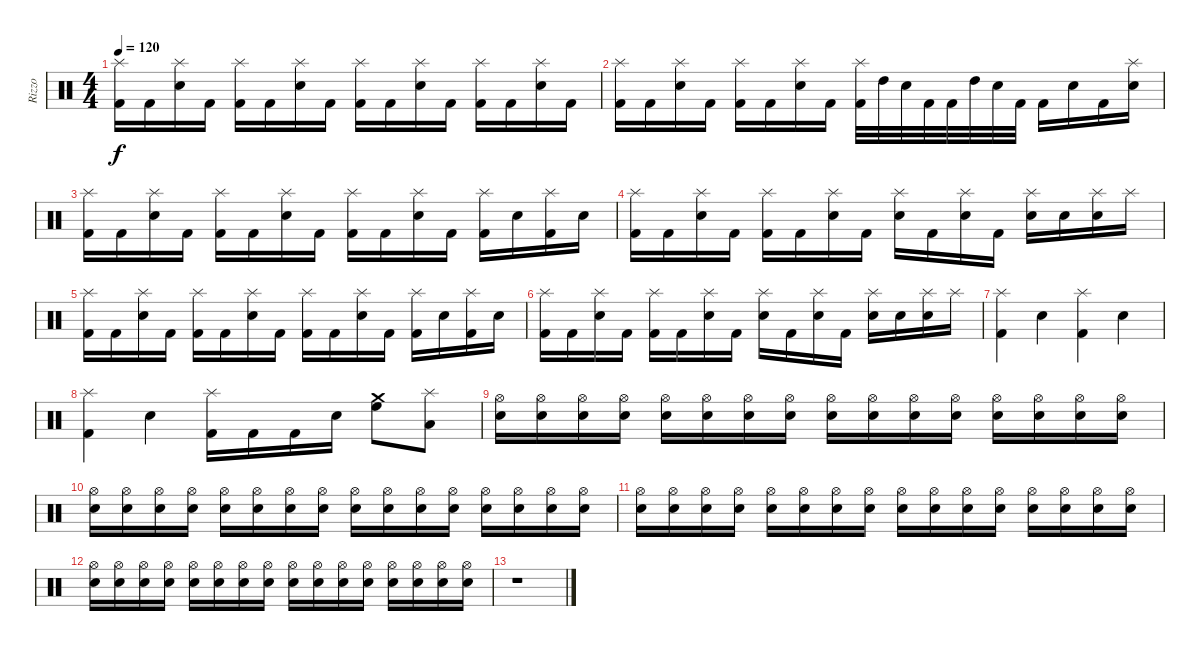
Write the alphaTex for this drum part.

\track ("Rizzo" "Rizzo") {instrument percussion}
\staff {score}
\articulation defaults
\ts (4 4)
\tempo 120
\clef neutral
\ks c
("Kick (hit) 2" "Splash (hit)").16{dy f} "Kick (hit) 2".16 ("Electric Snare (hit)" "Splash (hit)").16 "Kick (hit) 2".16 ("Kick (hit) 2" "Splash (hit)").16 "Kick (hit) 2".16 ("Electric Snare (hit)" "Splash (hit)").16 "Kick (hit) 2".16 ("Kick (hit) 2" "Splash (hit)").16 "Kick (hit) 2".16 ("Electric Snare (hit)" "Splash (hit)").16 "Kick (hit) 2".16 ("Kick (hit) 2" "Splash (hit)").16 "Kick (hit) 2".16 ("Electric Snare (hit)" "Splash (hit)").16 "Kick (hit) 2".16 |
("Kick (hit) 2" "Splash (hit)").16 "Kick (hit) 2".16 ("Electric Snare (hit)" "Splash (hit)").16 "Kick (hit) 2".16 ("Kick (hit) 2" "Splash (hit)").16 "Kick (hit) 2".16 ("Electric Snare (hit)" "Splash (hit)").16 "Kick (hit) 2".16 ("Kick (hit) 2" "Splash (hit)").32 "High Tom (hit)".32 "Electric Snare (hit)".32 "Kick (hit) 2".32 "Kick (hit) 2".32 "High Tom (hit)".32 "Electric Snare (hit)".32 "Kick (hit) 2".32 "Kick (hit) 2"{x}.16 "Electric Snare (hit)".16 "Kick (hit) 2".16 ("Electric Snare (hit)" "Splash (hit)").16 |
("Kick (hit) 2" "Splash (hit)").16 "Kick (hit) 2".16 ("Electric Snare (hit)" "Splash (hit)").16 "Kick (hit) 2".16 ("Kick (hit) 2" "Splash (hit)").16 "Kick (hit) 2".16 ("Electric Snare (hit)" "Splash (hit)").16 "Kick (hit) 2".16 ("Kick (hit) 2" "Splash (hit)").16 "Kick (hit) 2".16 ("Electric Snare (hit)" "Splash (hit)").16 "Kick (hit) 2".16 ("Kick (hit) 2" "Splash (hit)").16 "Electric Snare (hit)".16 ("Kick (hit) 2" "Splash (hit)").16 "Electric Snare (hit)".16 |
("Kick (hit) 2" "Splash (hit)").16 "Kick (hit) 2".16 ("Electric Snare (hit)" "Splash (hit)").16 "Kick (hit) 2".16 ("Kick (hit) 2" "Splash (hit)").16 "Kick (hit) 2".16 ("Electric Snare (hit)" "Splash (hit)").16 "Kick (hit) 2".16 ("Electric Snare (hit)" "Splash (hit)").16 "Kick (hit) 2"{x}.16 ("Electric Snare (hit)" "Splash (hit)").16 "Kick (hit) 2"{x}.16 ("Electric Snare (hit)" "Splash (hit)").16 "Electric Snare (hit)".16 ("Electric Snare (hit)" "Splash (hit)").16 "Splash (hit)".16 |
("Kick (hit) 2" "Splash (hit)").16 "Kick (hit) 2".16 ("Electric Snare (hit)" "Splash (hit)").16 "Kick (hit) 2".16 ("Kick (hit) 2" "Splash (hit)").16 "Kick (hit) 2".16 ("Electric Snare (hit)" "Splash (hit)").16 "Kick (hit) 2".16 ("Kick (hit) 2" "Splash (hit)").16 "Kick (hit) 2".16 ("Electric Snare (hit)" "Splash (hit)").16 "Kick (hit) 2".16 ("Kick (hit) 2" "Splash (hit)").16 "Electric Snare (hit)".16 ("Kick (hit) 2" "Splash (hit)").16 "Electric Snare (hit)".16 |
("Kick (hit) 2" "Splash (hit)").16 "Kick (hit) 2".16 ("Electric Snare (hit)" "Splash (hit)").16 "Kick (hit) 2".16 ("Kick (hit) 2" "Splash (hit)").16 "Kick (hit) 2".16 ("Electric Snare (hit)" "Splash (hit)").16 "Kick (hit) 2".16 ("Electric Snare (hit)" "Splash (hit)").16 "Kick (hit) 2"{x}.16 ("Electric Snare (hit)" "Splash (hit)").16 "Kick (hit) 2"{x}.16 ("Electric Snare (hit)" "Splash (hit)").16 "Electric Snare (hit)".16 ("Electric Snare (hit)" "Splash (hit)").16 "Splash (hit)".16 |
("Splash (hit)" "Kick (hit) 2").4 "Snare (hit)"{x}.4 ("Splash (hit)" "Kick (hit) 2").4 "Snare (hit)"{x}.4 |
("Splash (hit)" "Kick (hit) 2").4 "Snare (hit)"{x}.4 ("Splash (hit)" "Kick (hit) 2").16 "Kick (hit) 2"{x}.16 "Kick (hit) 2".16 "Snare (hit) 2".16 ("High Floor Tom (hit)" "Crash medium (hit)").8 ("Low Tom (hit)" "Splash (hit)").8 |
("Snare (hit) 2" "Hi-Hat (open)").16 ("Snare (hit) 2" "Hi-Hat (open)").16 ("Snare (hit) 2" "Hi-Hat (open)").16 ("Snare (hit) 2" "Hi-Hat (open)").16 ("Snare (hit) 2" "Hi-Hat (open)").16 ("Snare (hit) 2" "Hi-Hat (open)").16 ("Snare (hit) 2" "Hi-Hat (open)").16 ("Snare (hit) 2" "Hi-Hat (open)").16 ("Snare (hit) 2" "Hi-Hat (open)").16 ("Snare (hit) 2" "Hi-Hat (open)").16 ("Snare (hit) 2" "Hi-Hat (open)").16 ("Snare (hit) 2" "Hi-Hat (open)").16 ("Snare (hit) 2" "Hi-Hat (open)").16 ("Snare (hit) 2" "Hi-Hat (open)").16 ("Snare (hit) 2" "Hi-Hat (open)").16 ("Snare (hit) 2" "Hi-Hat (open)").16 |
("Snare (hit) 2" "Hi-Hat (open)").16 ("Snare (hit) 2" "Hi-Hat (open)").16 ("Snare (hit) 2" "Hi-Hat (open)").16 ("Snare (hit) 2" "Hi-Hat (open)").16 ("Snare (hit) 2" "Hi-Hat (open)").16 ("Snare (hit) 2" "Hi-Hat (open)").16 ("Snare (hit) 2" "Hi-Hat (open)").16 ("Snare (hit) 2" "Hi-Hat (open)").16 ("Snare (hit) 2" "Hi-Hat (open)").16 ("Snare (hit) 2" "Hi-Hat (open)").16 ("Snare (hit) 2" "Hi-Hat (open)").16 ("Snare (hit) 2" "Hi-Hat (open)").16 ("Snare (hit) 2" "Hi-Hat (open)").16 ("Snare (hit) 2" "Hi-Hat (open)").16 ("Snare (hit) 2" "Hi-Hat (open)").16 ("Snare (hit) 2" "Hi-Hat (open)").16 |
("Snare (hit) 2" "Hi-Hat (open)").16 ("Snare (hit) 2" "Hi-Hat (open)").16 ("Snare (hit) 2" "Hi-Hat (open)").16 ("Snare (hit) 2" "Hi-Hat (open)").16 ("Snare (hit) 2" "Hi-Hat (open)").16 ("Snare (hit) 2" "Hi-Hat (open)").16 ("Snare (hit) 2" "Hi-Hat (open)").16 ("Snare (hit) 2" "Hi-Hat (open)").16 ("Snare (hit) 2" "Hi-Hat (open)").16 ("Snare (hit) 2" "Hi-Hat (open)").16 ("Snare (hit) 2" "Hi-Hat (open)").16 ("Snare (hit) 2" "Hi-Hat (open)").16 ("Snare (hit) 2" "Hi-Hat (open)").16 ("Snare (hit) 2" "Hi-Hat (open)").16 ("Snare (hit) 2" "Hi-Hat (open)").16 ("Snare (hit) 2" "Hi-Hat (open)").16 |
("Snare (hit) 2" "Hi-Hat (open)").16 ("Snare (hit) 2" "Hi-Hat (open)").16 ("Snare (hit) 2" "Hi-Hat (open)").16 ("Snare (hit) 2" "Hi-Hat (open)").16 ("Snare (hit) 2" "Hi-Hat (open)").16 ("Snare (hit) 2" "Hi-Hat (open)").16 ("Snare (hit) 2" "Hi-Hat (open)").16 ("Snare (hit) 2" "Hi-Hat (open)").16 ("Snare (hit) 2" "Hi-Hat (open)").16 ("Snare (hit) 2" "Hi-Hat (open)").16 ("Snare (hit) 2" "Hi-Hat (open)").16 ("Snare (hit) 2" "Hi-Hat (open)").16 ("Snare (hit) 2" "Hi-Hat (open)").16 ("Snare (hit) 2" "Hi-Hat (open)").16 ("Snare (hit) 2" "Hi-Hat (open)").16 ("Snare (hit) 2" "Hi-Hat (open)").16 |
r.1
